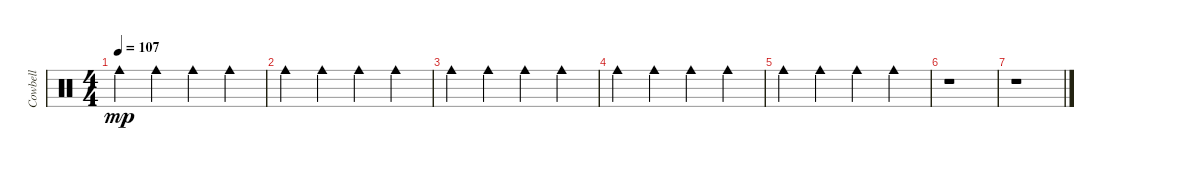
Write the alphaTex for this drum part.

\track ("Cowbell" "Cowbell") {instrument percussion}
\staff {score}
\articulation defaults
\ts (4 4)
\tempo 107
\clef neutral
\ks c "Cowbell medium (hit)".4{dy mp} "Cowbell medium (hit)".4 "Cowbell medium (hit)".4 "Cowbell medium (hit)".4
|
"Cowbell medium (hit)".4 "Cowbell medium (hit)".4 "Cowbell medium (hit)".4 "Cowbell medium (hit)".4 |
"Cowbell medium (hit)".4 "Cowbell medium (hit)".4 "Cowbell medium (hit)".4 "Cowbell medium (hit)".4 |
"Cowbell medium (hit)".4 "Cowbell medium (hit)".4 "Cowbell medium (hit)".4 "Cowbell medium (hit)".4 |
"Cowbell medium (hit)".4 "Cowbell medium (hit)".4 "Cowbell medium (hit)".4 "Cowbell medium (hit)".4 |
r.1 |
r.1
